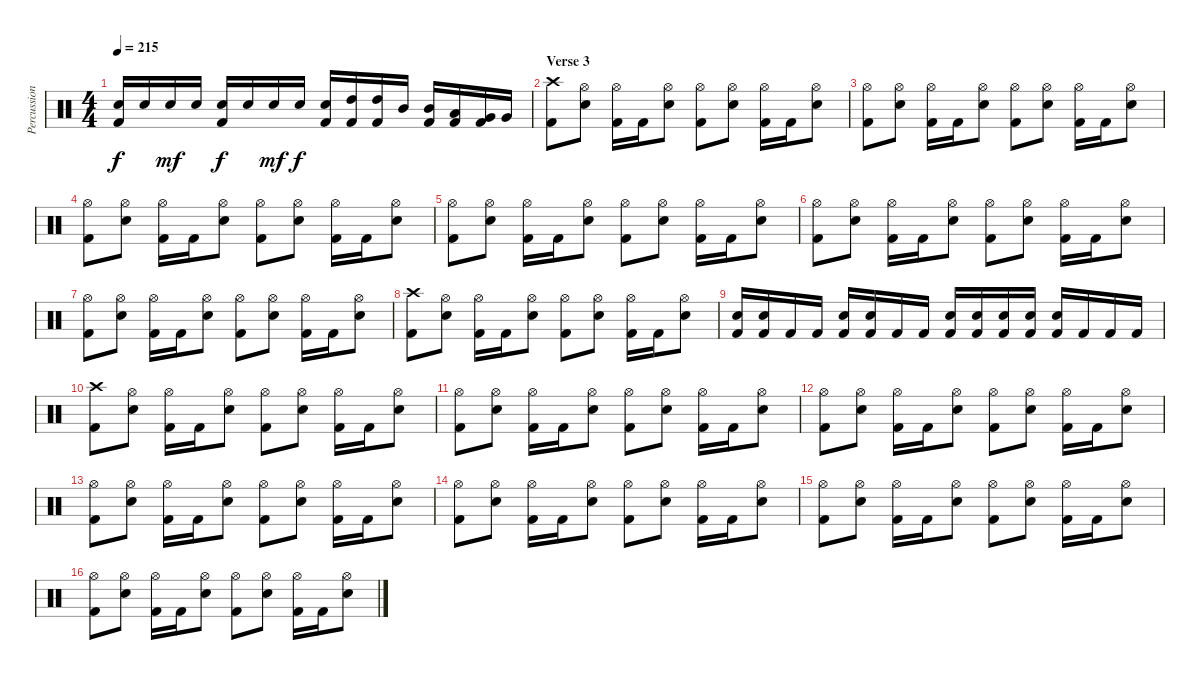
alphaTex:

\track ("Percussion" "Percussion") {instrument percussion}
\staff {score}
\articulation defaults
\ts (4 4)
\tempo 215
\clef neutral
\ks c
("Snare (hit) 2" "Kick (hit) 2").16{dy f} "Snare (hit) 2".16 "Snare (hit) 2".16{dy mf} "Snare (hit) 2".16 ("Snare (hit) 2" "Kick (hit) 2").16{dy f} "Snare (hit) 2".16 "Snare (hit) 2".16{dy mf} "Snare (hit) 2".16{dy f} ("Snare (hit) 2" "Kick (hit) 2").16 ("High Tom (hit)" "Kick (hit) 2").16 ("High Tom (hit)" "Kick (hit) 2").16 "Mid Tom (hit)".16 ("Mid Tom (hit)" "Kick (hit) 2").16 ("Low Tom (hit)" "Kick (hit) 2").16 ("Very Low Tom (hit)" "Kick (hit) 2").16 "Very Low Tom (hit)".16 |
\section ("" "Verse 3")
("Crash high (hit)" "Kick (hit) 2").8 ("Hi-Hat (open)" "Snare (hit) 2").8 ("Hi-Hat (open)" "Kick (hit) 2").16 "Kick (hit) 2".16 ("Hi-Hat (open)" "Snare (hit) 2").8 ("Hi-Hat (open)" "Kick (hit) 2").8 ("Hi-Hat (open)" "Snare (hit) 2").8 ("Hi-Hat (open)" "Kick (hit) 2").16 "Kick (hit) 2".16 ("Hi-Hat (open)" "Snare (hit) 2").8 |
("Hi-Hat (open)" "Kick (hit) 2").8 ("Hi-Hat (open)" "Snare (hit) 2").8 ("Hi-Hat (open)" "Kick (hit) 2").16 "Kick (hit) 2".16 ("Hi-Hat (open)" "Snare (hit) 2").8 ("Hi-Hat (open)" "Kick (hit) 2").8 ("Hi-Hat (open)" "Snare (hit) 2").8 ("Hi-Hat (open)" "Kick (hit) 2").16 "Kick (hit) 2".16 ("Hi-Hat (open)" "Snare (hit) 2").8 |
("Hi-Hat (open)" "Kick (hit) 2").8 ("Hi-Hat (open)" "Snare (hit) 2").8 ("Hi-Hat (open)" "Kick (hit) 2").16 "Kick (hit) 2".16 ("Hi-Hat (open)" "Snare (hit) 2").8 ("Hi-Hat (open)" "Kick (hit) 2").8 ("Hi-Hat (open)" "Snare (hit) 2").8 ("Hi-Hat (open)" "Kick (hit) 2").16 "Kick (hit) 2".16 ("Hi-Hat (open)" "Snare (hit) 2").8 |
("Hi-Hat (open)" "Kick (hit) 2").8 ("Hi-Hat (open)" "Snare (hit) 2").8 ("Hi-Hat (open)" "Kick (hit) 2").16 "Kick (hit) 2".16 ("Hi-Hat (open)" "Snare (hit) 2").8 ("Hi-Hat (open)" "Kick (hit) 2").8 ("Hi-Hat (open)" "Snare (hit) 2").8 ("Hi-Hat (open)" "Kick (hit) 2").16 "Kick (hit) 2".16 ("Hi-Hat (open)" "Snare (hit) 2").8 |
("Hi-Hat (open)" "Kick (hit) 2").8 ("Hi-Hat (open)" "Snare (hit) 2").8 ("Hi-Hat (open)" "Kick (hit) 2").16 "Kick (hit) 2".16 ("Hi-Hat (open)" "Snare (hit) 2").8 ("Hi-Hat (open)" "Kick (hit) 2").8 ("Hi-Hat (open)" "Snare (hit) 2").8 ("Hi-Hat (open)" "Kick (hit) 2").16 "Kick (hit) 2".16 ("Hi-Hat (open)" "Snare (hit) 2").8 |
("Hi-Hat (open)" "Kick (hit) 2").8 ("Hi-Hat (open)" "Snare (hit) 2").8 ("Hi-Hat (open)" "Kick (hit) 2").16 "Kick (hit) 2".16 ("Hi-Hat (open)" "Snare (hit) 2").8 ("Hi-Hat (open)" "Kick (hit) 2").8 ("Hi-Hat (open)" "Snare (hit) 2").8 ("Hi-Hat (open)" "Kick (hit) 2").16 "Kick (hit) 2".16 ("Hi-Hat (open)" "Snare (hit) 2").8 |
("Crash high (hit)" "Kick (hit) 2").8 ("Hi-Hat (open)" "Snare (hit) 2").8 ("Hi-Hat (open)" "Kick (hit) 2").16 "Kick (hit) 2".16 ("Hi-Hat (open)" "Snare (hit) 2").8 ("Hi-Hat (open)" "Kick (hit) 2").8 ("Hi-Hat (open)" "Snare (hit) 2").8 ("Hi-Hat (open)" "Kick (hit) 2").16 "Kick (hit) 2".16 ("Hi-Hat (open)" "Snare (hit) 2").8 |
("Snare (hit) 2" "Kick (hit) 2").16 ("Snare (hit) 2" "Kick (hit) 2").16 "Kick (hit) 2".16 "Kick (hit) 2".16 ("Snare (hit) 2" "Kick (hit) 2").16 ("Snare (hit) 2" "Kick (hit) 2").16 "Kick (hit) 2".16 "Kick (hit) 2".16 ("Snare (hit) 2" "Kick (hit) 2").16 ("Snare (hit) 2" "Kick (hit) 2").16 ("Snare (hit) 2" "Kick (hit) 2").16 ("Snare (hit) 2" "Kick (hit) 2").16 ("Snare (hit) 2" "Kick (hit) 2").16 "Kick (hit) 2".16 "Kick (hit) 2".16 "Kick (hit) 2".16 |
("Crash high (hit)" "Kick (hit) 2").8 ("Hi-Hat (open)" "Snare (hit) 2").8 ("Hi-Hat (open)" "Kick (hit) 2").16 "Kick (hit) 2".16 ("Hi-Hat (open)" "Snare (hit) 2").8 ("Hi-Hat (open)" "Kick (hit) 2").8 ("Hi-Hat (open)" "Snare (hit) 2").8 ("Hi-Hat (open)" "Kick (hit) 2").16 "Kick (hit) 2".16 ("Hi-Hat (open)" "Snare (hit) 2").8 |
("Hi-Hat (open)" "Kick (hit) 2").8 ("Hi-Hat (open)" "Snare (hit) 2").8 ("Hi-Hat (open)" "Kick (hit) 2").16 "Kick (hit) 2".16 ("Hi-Hat (open)" "Snare (hit) 2").8 ("Hi-Hat (open)" "Kick (hit) 2").8 ("Hi-Hat (open)" "Snare (hit) 2").8 ("Hi-Hat (open)" "Kick (hit) 2").16 "Kick (hit) 2".16 ("Hi-Hat (open)" "Snare (hit) 2").8 |
("Hi-Hat (open)" "Kick (hit) 2").8 ("Hi-Hat (open)" "Snare (hit) 2").8 ("Hi-Hat (open)" "Kick (hit) 2").16 "Kick (hit) 2".16 ("Hi-Hat (open)" "Snare (hit) 2").8 ("Hi-Hat (open)" "Kick (hit) 2").8 ("Hi-Hat (open)" "Snare (hit) 2").8 ("Hi-Hat (open)" "Kick (hit) 2").16 "Kick (hit) 2".16 ("Hi-Hat (open)" "Snare (hit) 2").8 |
("Hi-Hat (open)" "Kick (hit) 2").8 ("Hi-Hat (open)" "Snare (hit) 2").8 ("Hi-Hat (open)" "Kick (hit) 2").16 "Kick (hit) 2".16 ("Hi-Hat (open)" "Snare (hit) 2").8 ("Hi-Hat (open)" "Kick (hit) 2").8 ("Hi-Hat (open)" "Snare (hit) 2").8 ("Hi-Hat (open)" "Kick (hit) 2").16 "Kick (hit) 2".16 ("Hi-Hat (open)" "Snare (hit) 2").8 |
("Hi-Hat (open)" "Kick (hit) 2").8 ("Hi-Hat (open)" "Snare (hit) 2").8 ("Hi-Hat (open)" "Kick (hit) 2").16 "Kick (hit) 2".16 ("Hi-Hat (open)" "Snare (hit) 2").8 ("Hi-Hat (open)" "Kick (hit) 2").8 ("Hi-Hat (open)" "Snare (hit) 2").8 ("Hi-Hat (open)" "Kick (hit) 2").16 "Kick (hit) 2".16 ("Hi-Hat (open)" "Snare (hit) 2").8 |
("Hi-Hat (open)" "Kick (hit) 2").8 ("Hi-Hat (open)" "Snare (hit) 2").8 ("Hi-Hat (open)" "Kick (hit) 2").16 "Kick (hit) 2".16 ("Hi-Hat (open)" "Snare (hit) 2").8 ("Hi-Hat (open)" "Kick (hit) 2").8 ("Hi-Hat (open)" "Snare (hit) 2").8 ("Hi-Hat (open)" "Kick (hit) 2").16 "Kick (hit) 2".16 ("Hi-Hat (open)" "Snare (hit) 2").8 |
("Hi-Hat (open)" "Kick (hit) 2").8 ("Hi-Hat (open)" "Snare (hit) 2").8 ("Hi-Hat (open)" "Kick (hit) 2").16 "Kick (hit) 2".16 ("Hi-Hat (open)" "Snare (hit) 2").8 ("Hi-Hat (open)" "Kick (hit) 2").8 ("Hi-Hat (open)" "Snare (hit) 2").8 ("Hi-Hat (open)" "Kick (hit) 2").16 "Kick (hit) 2".16 ("Hi-Hat (open)" "Snare (hit) 2").8
